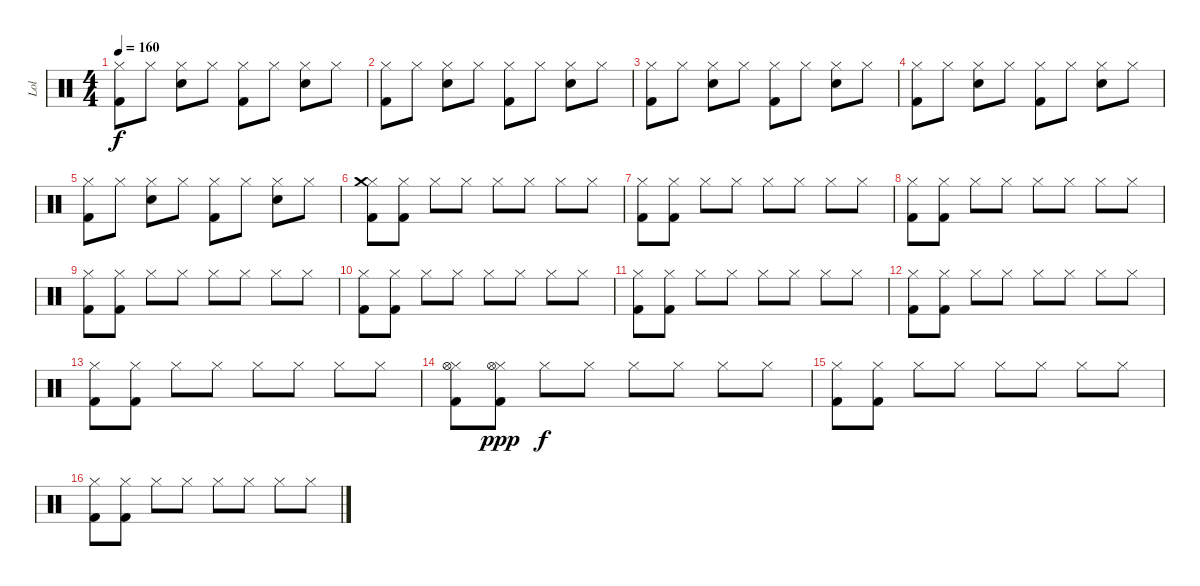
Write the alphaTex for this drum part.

\track ("Lol" "Lol") {instrument percussion}
\staff {score}
\articulation defaults
\ts (4 4)
\tempo 160
\clef neutral
\ks c
("Kick (hit) 2" "Hi-Hat (closed)").8{dy f} "Hi-Hat (closed)".8 ("Snare (hit) 2" "Hi-Hat (closed)").8 "Hi-Hat (closed)".8 ("Kick (hit) 2" "Hi-Hat (closed)").8 "Hi-Hat (closed)".8 ("Snare (hit) 2" "Hi-Hat (closed)").8 "Hi-Hat (closed)".8 |
("Kick (hit) 2" "Hi-Hat (closed)").8 "Hi-Hat (closed)".8 ("Snare (hit) 2" "Hi-Hat (closed)").8 "Hi-Hat (closed)".8 ("Kick (hit) 2" "Hi-Hat (closed)").8 "Hi-Hat (closed)".8 ("Snare (hit) 2" "Hi-Hat (closed)").8 "Hi-Hat (closed)".8 |
("Kick (hit) 2" "Hi-Hat (closed)").8 "Hi-Hat (closed)".8 ("Snare (hit) 2" "Hi-Hat (closed)").8 "Hi-Hat (closed)".8 ("Kick (hit) 2" "Hi-Hat (closed)").8 "Hi-Hat (closed)".8 ("Snare (hit) 2" "Hi-Hat (closed)").8 "Hi-Hat (closed)".8 |
("Kick (hit) 2" "Hi-Hat (closed)").8 "Hi-Hat (closed)".8 ("Snare (hit) 2" "Hi-Hat (closed)").8 "Hi-Hat (closed)".8 ("Kick (hit) 2" "Hi-Hat (closed)").8 "Hi-Hat (closed)".8 ("Snare (hit) 2" "Hi-Hat (closed)").8 "Hi-Hat (closed)".8 |
("Kick (hit) 2" "Hi-Hat (closed)").8 "Hi-Hat (closed)".8 ("Snare (hit) 2" "Hi-Hat (closed)").8 "Hi-Hat (closed)".8 ("Kick (hit) 2" "Hi-Hat (closed)").8 "Hi-Hat (closed)".8 ("Snare (hit) 2" "Hi-Hat (closed)").8 "Hi-Hat (closed)".8 |
("Kick (hit) 2" "Hi-Hat (closed)" "Crash medium (hit)").8 ("Kick (hit) 2" "Hi-Hat (closed)").8 "Hi-Hat (closed)".8 "Hi-Hat (closed)".8 "Hi-Hat (closed)".8 "Hi-Hat (closed)".8 "Hi-Hat (closed)".8 "Hi-Hat (closed)".8 |
("Kick (hit) 2" "Hi-Hat (closed)").8 ("Kick (hit) 2" "Hi-Hat (closed)").8 "Hi-Hat (closed)".8 "Hi-Hat (closed)".8 "Hi-Hat (closed)".8 "Hi-Hat (closed)".8 "Hi-Hat (closed)".8 "Hi-Hat (closed)".8 |
("Kick (hit) 2" "Hi-Hat (closed)").8 ("Kick (hit) 2" "Hi-Hat (closed)").8 "Hi-Hat (closed)".8 "Hi-Hat (closed)".8 "Hi-Hat (closed)".8 "Hi-Hat (closed)".8 "Hi-Hat (closed)".8 "Hi-Hat (closed)".8 |
("Kick (hit) 2" "Hi-Hat (closed)").8 ("Kick (hit) 2" "Hi-Hat (closed)").8 "Hi-Hat (closed)".8 "Hi-Hat (closed)".8 "Hi-Hat (closed)".8 "Hi-Hat (closed)".8 "Hi-Hat (closed)".8 "Hi-Hat (closed)".8 |
("Kick (hit) 2" "Hi-Hat (closed)").8 ("Kick (hit) 2" "Hi-Hat (closed)").8 "Hi-Hat (closed)".8 "Hi-Hat (closed)".8 "Hi-Hat (closed)".8 "Hi-Hat (closed)".8 "Hi-Hat (closed)".8 "Hi-Hat (closed)".8 |
("Kick (hit) 2" "Hi-Hat (closed)").8 ("Kick (hit) 2" "Hi-Hat (closed)").8 "Hi-Hat (closed)".8 "Hi-Hat (closed)".8 "Hi-Hat (closed)".8 "Hi-Hat (closed)".8 "Hi-Hat (closed)".8 "Hi-Hat (closed)".8 |
("Kick (hit) 2" "Hi-Hat (closed)").8 ("Kick (hit) 2" "Hi-Hat (closed)").8 "Hi-Hat (closed)".8 "Hi-Hat (closed)".8 "Hi-Hat (closed)".8 "Hi-Hat (closed)".8 "Hi-Hat (closed)".8 "Hi-Hat (closed)".8 |
("Kick (hit) 2" "Hi-Hat (closed)").8 ("Kick (hit) 2" "Hi-Hat (closed)").8 "Hi-Hat (closed)".8 "Hi-Hat (closed)".8 "Hi-Hat (closed)".8 "Hi-Hat (closed)".8 "Hi-Hat (closed)".8 "Hi-Hat (closed)".8 |
("Kick (hit) 2" "Hi-Hat (closed)" "Hi-Hat (open)").8 ("Kick (hit) 2" "Hi-Hat (closed)" "Hi-Hat (open)").8{dy ppp} "Hi-Hat (closed)".8{dy f} "Hi-Hat (closed)".8 "Hi-Hat (closed)".8 "Hi-Hat (closed)".8 "Hi-Hat (closed)".8 "Hi-Hat (closed)".8 |
("Kick (hit) 2" "Hi-Hat (closed)").8 ("Kick (hit) 2" "Hi-Hat (closed)").8 "Hi-Hat (closed)".8 "Hi-Hat (closed)".8 "Hi-Hat (closed)".8 "Hi-Hat (closed)".8 "Hi-Hat (closed)".8 "Hi-Hat (closed)".8 |
("Kick (hit) 2" "Hi-Hat (closed)").8 ("Kick (hit) 2" "Hi-Hat (closed)").8 "Hi-Hat (closed)".8 "Hi-Hat (closed)".8 "Hi-Hat (closed)".8 "Hi-Hat (closed)".8 "Hi-Hat (closed)".8 "Hi-Hat (closed)".8
